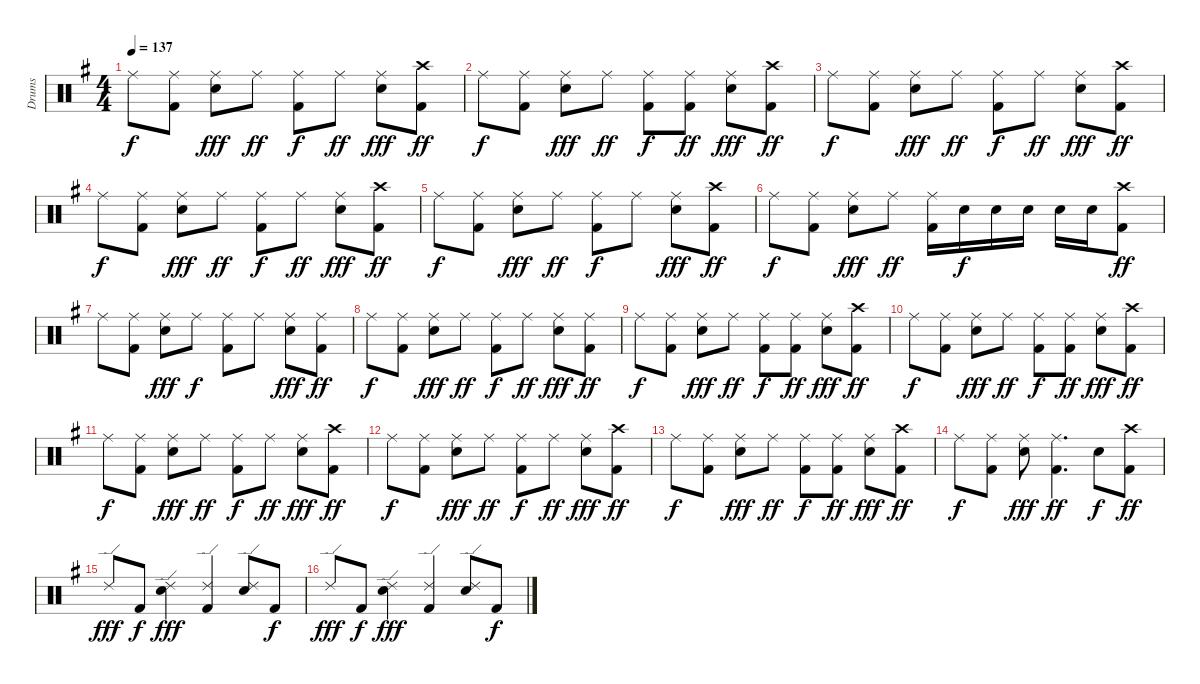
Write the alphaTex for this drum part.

\track ("Drums" "Drums") {instrument percussion}
\staff {score}
\articulation defaults
\ts (4 4)
\tempo 137
\clef neutral
\ks g "Ride (middle)".8{dy f}
("Ride (middle)" "Kick (hit) 2").8 ("Ride (middle)" "Snare (hit) 2").8{dy fff} "Ride (middle)".8{dy ff} ("Ride (middle)" "Kick (hit) 2").8{dy f} "Ride (middle)".8{dy ff} ("Ride (middle)" "Snare (hit) 2").8{dy fff} ("Crash high (hit)" "Kick (hit) 2").8{dy ff} |
"Ride (middle)".8{dy f} ("Ride (middle)" "Kick (hit) 2").8 ("Ride (middle)" "Snare (hit) 2").8{dy fff} "Ride (middle)".8{dy ff} ("Ride (middle)" "Kick (hit) 2").8{dy f} ("Ride (middle)" "Kick (hit) 2").8{dy ff} ("Ride (middle)" "Snare (hit) 2").8{dy fff} ("Crash high (hit)" "Kick (hit) 2").8{dy ff} |
"Ride (middle)".8{dy f} ("Ride (middle)" "Kick (hit) 2").8 ("Ride (middle)" "Snare (hit) 2").8{dy fff} "Ride (middle)".8{dy ff} ("Ride (middle)" "Kick (hit) 2").8{dy f} "Ride (middle)".8{dy ff} ("Ride (middle)" "Snare (hit) 2").8{dy fff} ("Crash high (hit)" "Kick (hit) 2").8{dy ff} |
"Ride (middle)".8{dy f} ("Ride (middle)" "Kick (hit) 2").8 ("Ride (middle)" "Snare (hit) 2").8{dy fff} "Ride (middle)".8{dy ff} ("Ride (middle)" "Kick (hit) 2").8{dy f} "Ride (middle)".8{dy ff} ("Ride (middle)" "Snare (hit) 2").8{dy fff} ("Crash high (hit)" "Kick (hit) 2").8{dy ff} |
"Ride (middle)".8{dy f} ("Ride (middle)" "Kick (hit) 2").8 ("Ride (middle)" "Snare (hit) 2").8{dy fff} "Ride (middle)".8{dy ff} ("Ride (middle)" "Kick (hit) 2").8{dy f} "Ride (middle)".8 ("Ride (middle)" "Snare (hit) 2").8{dy fff} ("Crash high (hit)" "Kick (hit) 2").8{dy ff} |
"Ride (middle)".8{dy f} ("Ride (middle)" "Kick (hit) 2").8 ("Ride (middle)" "Snare (hit) 2").8{dy fff} "Ride (middle)".8{dy ff} ("Ride (middle)" "Kick (hit) 2").16 "Snare (hit) 2".16{dy f} "Snare (hit) 2".16 "Snare (hit) 2".16 "Snare (hit) 2".16 "Snare (hit) 2".16 ("Crash high (hit)" "Kick (hit) 2").8{dy ff} |
"Ride (middle)".8 ("Ride (middle)" "Kick (hit) 2").8 ("Ride (middle)" "Snare (hit) 2").8{dy fff} "Ride (middle)".8{dy f} ("Ride (middle)" "Kick (hit) 2").8 "Ride (middle)".8 ("Ride (middle)" "Snare (hit) 2").8{dy fff} ("Ride (middle)" "Kick (hit) 2").8{dy ff} |
"Ride (middle)".8{dy f} ("Ride (middle)" "Kick (hit) 2").8 ("Ride (middle)" "Snare (hit) 2").8{dy fff} "Ride (middle)".8{dy ff} ("Ride (middle)" "Kick (hit) 2").8{dy f} "Ride (middle)".8{dy ff} ("Ride (middle)" "Snare (hit) 2").8{dy fff} ("Ride (middle)" "Kick (hit) 2").8{dy ff} |
"Ride (middle)".8{dy f} ("Ride (middle)" "Kick (hit) 2").8 ("Ride (middle)" "Snare (hit) 2").8{dy fff} "Ride (middle)".8{dy ff} ("Ride (middle)" "Kick (hit) 2").8{dy f} ("Ride (middle)" "Kick (hit) 2").8{dy ff} ("Ride (middle)" "Snare (hit) 2").8{dy fff} ("Crash high (hit)" "Kick (hit) 2").8{dy ff} |
"Ride (middle)".8{dy f} ("Ride (middle)" "Kick (hit) 2").8 ("Ride (middle)" "Snare (hit) 2").8{dy fff} "Ride (middle)".8{dy ff} ("Ride (middle)" "Kick (hit) 2").8{dy f} ("Ride (middle)" "Kick (hit) 2").8{dy ff} ("Ride (middle)" "Snare (hit) 2").8{dy fff} ("Crash high (hit)" "Kick (hit) 2").8{dy ff} |
"Ride (middle)".8{dy f} ("Ride (middle)" "Kick (hit) 2").8 ("Ride (middle)" "Snare (hit) 2").8{dy fff} "Ride (middle)".8{dy ff} ("Ride (middle)" "Kick (hit) 2").8{dy f} "Ride (middle)".8{dy ff} ("Ride (middle)" "Snare (hit) 2").8{dy fff} ("Crash high (hit)" "Kick (hit) 2").8{dy ff} |
"Ride (middle)".8{dy f} ("Ride (middle)" "Kick (hit) 2").8 ("Ride (middle)" "Snare (hit) 2").8{dy fff} "Ride (middle)".8{dy ff} ("Ride (middle)" "Kick (hit) 2").8{dy f} "Ride (middle)".8{dy ff} ("Ride (middle)" "Snare (hit) 2").8{dy fff} ("Crash high (hit)" "Kick (hit) 2").8{dy ff} |
"Ride (middle)".8{dy f} ("Ride (middle)" "Kick (hit) 2").8 ("Ride (middle)" "Snare (hit) 2").8{dy fff} "Ride (middle)".8{dy ff} ("Ride (middle)" "Kick (hit) 2").8{dy f} ("Ride (middle)" "Kick (hit) 2").8{dy ff} ("Ride (middle)" "Snare (hit) 2").8{dy fff} ("Crash high (hit)" "Kick (hit) 2").8{dy ff} |
"Ride (middle)".8{dy f} ("Ride (middle)" "Kick (hit) 2").8 ("Ride (middle)" "Snare (hit) 2").8{dy fff} ("Ride (middle)" "Kick (hit) 2").4{d dy ff} "Snare (hit) 2".8{dy f} ("Crash high (hit)" "Kick (hit) 2").8{dy ff} |
"Ride (edge) 2".8{dy fff} "Kick (hit) 2".8{dy f} ("Ride (edge) 2" "Snare (hit) 2").4{dy fff} ("Ride (edge) 2" "Kick (hit) 2").4 ("Ride (edge) 2" "Snare (hit) 2").8 "Kick (hit) 2".8{dy f} |
"Ride (edge) 2".8{dy fff} "Kick (hit) 2".8{dy f} ("Ride (edge) 2" "Snare (hit) 2").4{dy fff} ("Ride (edge) 2" "Kick (hit) 2").4 ("Ride (edge) 2" "Snare (hit) 2").8 "Kick (hit) 2".8{dy f}
